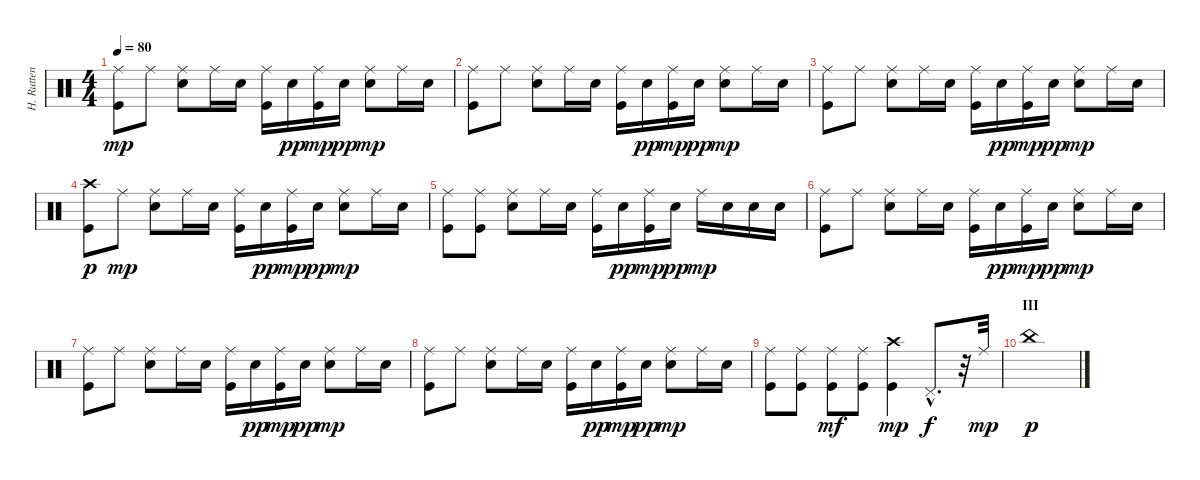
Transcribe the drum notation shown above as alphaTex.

\track ("H. Rutten" "H. Rutten") {instrument percussion}
\staff {score}
\articulation defaults
\ts (4 4)
\tempo 80
\clef neutral
\ks c
("Kick (hit)" "Ride (middle)").8{dy mp} "Ride (middle)".8 ("Electric Snare (hit)" "Ride (middle)").8 "Ride (middle)".16 "Electric Snare (hit)".16 ("Kick (hit)" "Ride (middle)").16 "Electric Snare (hit)".16{dy pp} ("Kick (hit)" "Ride (middle)").16{dy mp} "Electric Snare (hit)".16{dy pp} ("Electric Snare (hit)" "Ride (middle)").8{dy mp} "Ride (middle)".16 "Electric Snare (hit)".16 |
("Kick (hit)" "Ride (middle)").8 "Ride (middle)".8 ("Electric Snare (hit)" "Ride (middle)").8 "Ride (middle)".16 "Electric Snare (hit)".16 ("Kick (hit)" "Ride (middle)").16 "Electric Snare (hit)".16{dy pp} ("Kick (hit)" "Ride (middle)").16{dy mp} "Electric Snare (hit)".16{dy pp} ("Electric Snare (hit)" "Ride (middle)").8{dy mp} "Ride (middle)".16 "Electric Snare (hit)".16 |
("Kick (hit)" "Ride (middle)").8 "Ride (middle)".8 ("Electric Snare (hit)" "Ride (middle)").8 "Ride (middle)".16 "Electric Snare (hit)".16 ("Kick (hit)" "Ride (middle)").16 "Electric Snare (hit)".16{dy pp} ("Kick (hit)" "Ride (middle)").16{dy mp} "Electric Snare (hit)".16{dy pp} ("Electric Snare (hit)" "Ride (middle)").8{dy mp} "Ride (middle)".16 "Electric Snare (hit)".16 |
("Kick (hit)" "Crash high (hit)").8{dy p} "Ride (middle)".8{dy mp} ("Electric Snare (hit)" "Ride (middle)").8 "Ride (middle)".16 "Electric Snare (hit)".16 ("Kick (hit)" "Ride (middle)").16 "Electric Snare (hit)".16{dy pp} ("Kick (hit)" "Ride (middle)").16{dy mp} "Electric Snare (hit)".16{dy pp} ("Electric Snare (hit)" "Ride (middle)").8{dy mp} "Ride (middle)".16 "Electric Snare (hit)".16 |
("Kick (hit)" "Ride (middle)").8 ("Kick (hit)" "Ride (middle)").8 ("Electric Snare (hit)" "Ride (middle)").8 "Ride (middle)".16 "Electric Snare (hit)".16 ("Kick (hit)" "Ride (middle)").16 "Electric Snare (hit)".16{dy pp} ("Kick (hit)" "Ride (middle)").16{dy mp} "Electric Snare (hit)".16{dy pp} "Ride (middle)".16{dy mp} "Electric Snare (hit)".16 "Electric Snare (hit)".16 "Electric Snare (hit)".16 |
("Kick (hit)" "Ride (middle)").8 "Ride (middle)".8 ("Electric Snare (hit)" "Ride (middle)").8 "Ride (middle)".16 "Electric Snare (hit)".16 ("Kick (hit)" "Ride (middle)").16 "Electric Snare (hit)".16{dy pp} ("Kick (hit)" "Ride (middle)").16{dy mp} "Electric Snare (hit)".16{dy pp} ("Electric Snare (hit)" "Ride (middle)").8{dy mp} "Ride (middle)".16 "Electric Snare (hit)".16 |
("Kick (hit)" "Ride (middle)").8 "Ride (middle)".8 ("Electric Snare (hit)" "Ride (middle)").8 "Ride (middle)".16 "Electric Snare (hit)".16 ("Kick (hit)" "Ride (middle)").16 "Electric Snare (hit)".16{dy pp} ("Kick (hit)" "Ride (middle)").16{dy mp} "Electric Snare (hit)".16{dy pp} ("Electric Snare (hit)" "Ride (middle)").8{dy mp} "Ride (middle)".16 "Electric Snare (hit)".16 |
("Kick (hit)" "Ride (middle)").8 "Ride (middle)".8 ("Electric Snare (hit)" "Ride (middle)").8 "Ride (middle)".16 "Electric Snare (hit)".16 ("Kick (hit)" "Ride (middle)").16 "Electric Snare (hit)".16{dy pp} ("Kick (hit)" "Ride (middle)").16{dy mp} "Electric Snare (hit)".16{dy pp} ("Electric Snare (hit)" "Ride (middle)").8{dy mp} "Ride (middle)".16 "Electric Snare (hit)".16 |
("Kick (hit)" "Ride (middle)").8 ("Kick (hit)" "Ride (middle)").8 ("Kick (hit)" "Ride (middle)").8{dy mf} ("Kick (hit)" "Ride (middle)").8 ("Kick (hit)" "Crash high (hit)").4{dy mp} "Pedal Hi-Hat (hit)"{hac}.8{d dy f} r.32 "Ride (middle)".32{dy mp} |
\section ("" "III")
"China (hit)".1{dy p}
